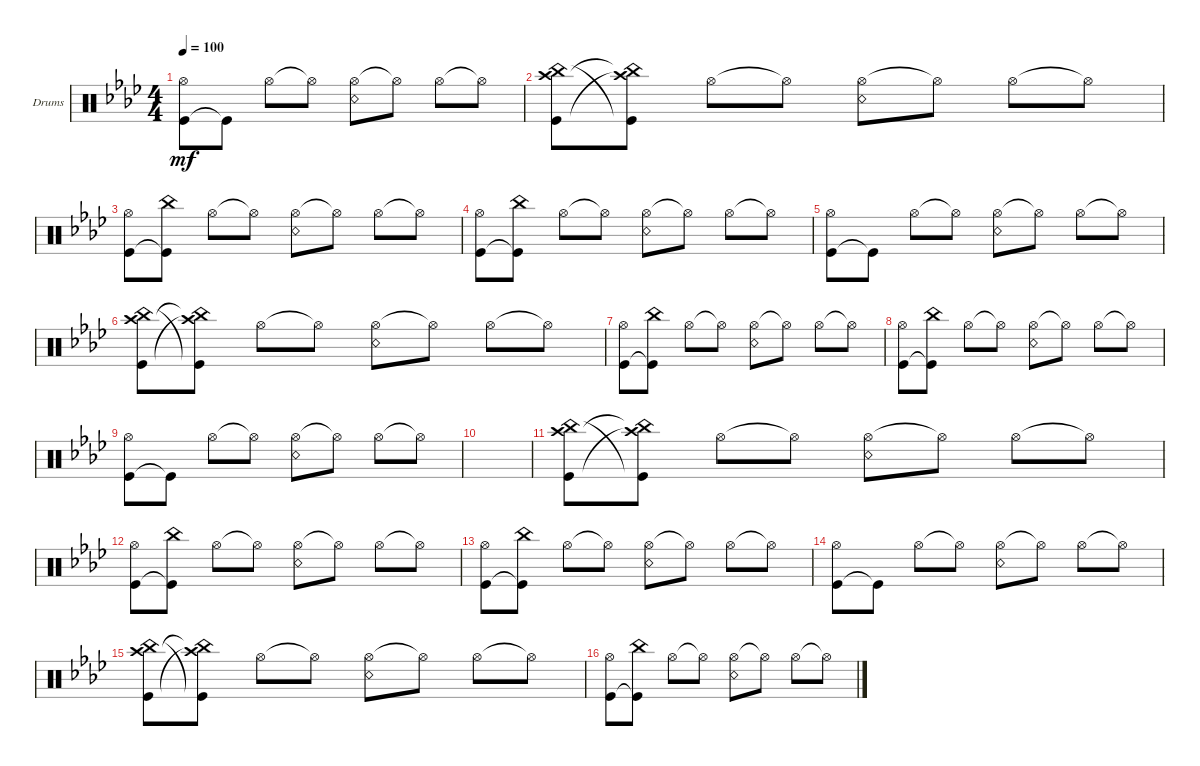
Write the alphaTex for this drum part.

\defaultSystemsLayout 4
\bracketExtendMode groupsimilarinstruments
\firstSystemTrackNameOrientation horizontal
\otherSystemsTrackNameOrientation horizontal
\track ("Drumkit" "Drums") {multiBarRest instrument percussion}
\staff {score}
\articulation defaults
\ts (4 4)
\tempo 100
\clef neutral
\ks fminor
("Kick (hit)" "Hi-Hat (open)").8{dy mf} "Kick (hit)"{t}.8 "Hi-Hat (open)".8 "Hi-Hat (open)"{t}.8 ("Hi-Hat (open)" "Snare (rim shot)").8 "Hi-Hat (open)"{t}.8 "Hi-Hat (open)".8 "Hi-Hat (open)"{t}.8 |
("China (hit)" "Crash high (hit)" "Kick (hit)").8 ("Kick (hit)"{t} "China (hit)"{t} "Crash high (hit)"{t}).8 "Hi-Hat (open)".8 "Hi-Hat (open)"{t}.8 ("Hi-Hat (open)" "Snare (rim shot)").8 "Hi-Hat (open)"{t}.8 "Hi-Hat (open)".8 "Hi-Hat (open)"{t}.8 |
("Kick (hit)" "Hi-Hat (open)").8 ("Kick (hit)"{t} "China (hit)").8 "Hi-Hat (open)".8 "Hi-Hat (open)"{t}.8 ("Hi-Hat (open)" "Snare (rim shot)").8 "Hi-Hat (open)"{t}.8 "Hi-Hat (open)".8 "Hi-Hat (open)"{t}.8 |
("Kick (hit)" "Hi-Hat (open)").8 ("Kick (hit)"{t} "China (hit)").8 "Hi-Hat (open)".8 "Hi-Hat (open)"{t}.8 ("Hi-Hat (open)" "Snare (rim shot)").8 "Hi-Hat (open)"{t}.8 "Hi-Hat (open)".8 "Hi-Hat (open)"{t}.8 |
("Kick (hit)" "Hi-Hat (open)").8 "Kick (hit)"{t}.8 "Hi-Hat (open)".8 "Hi-Hat (open)"{t}.8 ("Hi-Hat (open)" "Snare (rim shot)").8 "Hi-Hat (open)"{t}.8 "Hi-Hat (open)".8 "Hi-Hat (open)"{t}.8 |
("China (hit)" "Crash high (hit)" "Kick (hit)").8 ("Kick (hit)"{t} "China (hit)"{t} "Crash high (hit)"{t}).8 "Hi-Hat (open)".8 "Hi-Hat (open)"{t}.8 ("Hi-Hat (open)" "Snare (rim shot)").8 "Hi-Hat (open)"{t}.8 "Hi-Hat (open)".8 "Hi-Hat (open)"{t}.8 |
("Kick (hit)" "Hi-Hat (open)").8 ("Kick (hit)"{t} "China (hit)").8 "Hi-Hat (open)".8 "Hi-Hat (open)"{t}.8 ("Hi-Hat (open)" "Snare (rim shot)").8 "Hi-Hat (open)"{t}.8 "Hi-Hat (open)".8 "Hi-Hat (open)"{t}.8 |
("Kick (hit)" "Hi-Hat (open)").8 ("Kick (hit)"{t} "China (hit)").8 "Hi-Hat (open)".8 "Hi-Hat (open)"{t}.8 ("Hi-Hat (open)" "Snare (rim shot)").8 "Hi-Hat (open)"{t}.8 "Hi-Hat (open)".8 "Hi-Hat (open)"{t}.8 |
("Kick (hit)" "Hi-Hat (open)").8 "Kick (hit)"{t}.8 "Hi-Hat (open)".8 "Hi-Hat (open)"{t}.8 ("Hi-Hat (open)" "Snare (rim shot)").8 "Hi-Hat (open)"{t}.8 "Hi-Hat (open)".8 "Hi-Hat (open)"{t}.8 |
|
("China (hit)" "Crash high (hit)" "Kick (hit)").8 ("Kick (hit)"{t} "China (hit)"{t} "Crash high (hit)"{t}).8 "Hi-Hat (open)".8 "Hi-Hat (open)"{t}.8 ("Hi-Hat (open)" "Snare (rim shot)").8 "Hi-Hat (open)"{t}.8 "Hi-Hat (open)".8 "Hi-Hat (open)"{t}.8 |
("Kick (hit)" "Hi-Hat (open)").8 ("Kick (hit)"{t} "China (hit)").8 "Hi-Hat (open)".8 "Hi-Hat (open)"{t}.8 ("Hi-Hat (open)" "Snare (rim shot)").8 "Hi-Hat (open)"{t}.8 "Hi-Hat (open)".8 "Hi-Hat (open)"{t}.8 |
("Kick (hit)" "Hi-Hat (open)").8 ("Kick (hit)"{t} "China (hit)").8 "Hi-Hat (open)".8 "Hi-Hat (open)"{t}.8 ("Hi-Hat (open)" "Snare (rim shot)").8 "Hi-Hat (open)"{t}.8 "Hi-Hat (open)".8 "Hi-Hat (open)"{t}.8 |
("Kick (hit)" "Hi-Hat (open)").8 "Kick (hit)"{t}.8 "Hi-Hat (open)".8 "Hi-Hat (open)"{t}.8 ("Hi-Hat (open)" "Snare (rim shot)").8 "Hi-Hat (open)"{t}.8 "Hi-Hat (open)".8 "Hi-Hat (open)"{t}.8 |
("China (hit)" "Crash high (hit)" "Kick (hit)").8 ("Kick (hit)"{t} "China (hit)"{t} "Crash high (hit)"{t}).8 "Hi-Hat (open)".8 "Hi-Hat (open)"{t}.8 ("Hi-Hat (open)" "Snare (rim shot)").8 "Hi-Hat (open)"{t}.8 "Hi-Hat (open)".8 "Hi-Hat (open)"{t}.8 |
("Kick (hit)" "Hi-Hat (open)").8 ("Kick (hit)"{t} "China (hit)").8 "Hi-Hat (open)".8 "Hi-Hat (open)"{t}.8 ("Hi-Hat (open)" "Snare (rim shot)").8 "Hi-Hat (open)"{t}.8 "Hi-Hat (open)".8 "Hi-Hat (open)"{t}.8
